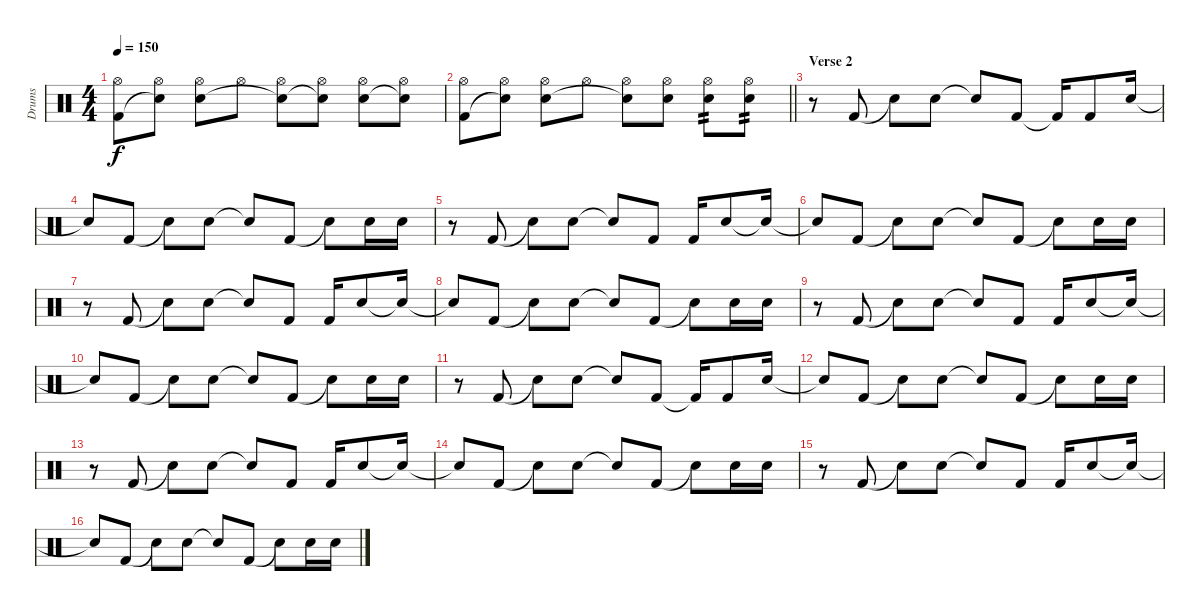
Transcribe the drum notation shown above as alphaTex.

\track ("Drums" "Drums") {instrument percussion}
\staff {score}
\articulation defaults
\ts (4 4)
\tempo 150
\clef neutral
\ks c
("Hi-Hat (open)" "Kick (hit) 2").8{dy f} ("Hi-Hat (open)" "Snare (hit)"{t}).8 ("Hi-Hat (open)" "Electric Snare (hit)").8 "Hi-Hat (open)".8 ("Hi-Hat (open)" "Snare (hit)"{t}).8 ("Hi-Hat (open)" "Electric Snare (hit)"{t}).8 ("Hi-Hat (open)" "Electric Snare (hit)").8 ("Hi-Hat (open)" "Snare (hit)"{t}).8 |
\barLineRight lightlight
("Hi-Hat (open)" "Kick (hit) 2").8 ("Hi-Hat (open)" "Snare (hit)"{t}).8 ("Hi-Hat (open)" "Electric Snare (hit)").8 "Hi-Hat (open)".8 ("Hi-Hat (open)" "Snare (hit)"{t}).8 ("Hi-Hat (open)" "Electric Snare (hit)").8 ("Hi-Hat (open)" "Electric Snare (hit)").8{tp 2} ("Hi-Hat (open)" "Electric Snare (hit)").8{tp 2} |
\section ("" "Verse 2")
r.8 "Kick (hit) 2".8 "Snare (hit)"{t}.8 "Electric Snare (hit)".8 "Snare (hit)"{t}.8 "Kick (hit) 2".8 "Kick (hit) 2"{t}.16 "Kick (hit) 2".8 "Electric Snare (hit)".16 |
"Snare (hit)"{t}.8 "Kick (hit) 2".8 "Snare (hit)"{t}.8 "Electric Snare (hit)".8 "Snare (hit)"{t}.8 "Kick (hit) 2".8 "Snare (hit)"{t}.8 "Electric Snare (hit)".16 "Electric Snare (hit)".16 |
r.8 "Kick (hit) 2".8 "Snare (hit)"{t}.8 "Electric Snare (hit)".8 "Snare (hit)"{t}.8 "Kick (hit) 2".8 "Kick (hit) 2".16 "Electric Snare (hit)".8 "Snare (hit)"{t}.16 |
"Snare (hit)"{t}.8 "Kick (hit) 2".8 "Snare (hit)"{t}.8 "Electric Snare (hit)".8 "Snare (hit)"{t}.8 "Kick (hit) 2".8 "Snare (hit)"{t}.8 "Electric Snare (hit)".16 "Electric Snare (hit)".16 |
r.8 "Kick (hit) 2".8 "Snare (hit)"{t}.8 "Electric Snare (hit)".8 "Snare (hit)"{t}.8 "Kick (hit) 2".8 "Kick (hit) 2".16 "Electric Snare (hit)".8 "Snare (hit)"{t}.16 |
"Snare (hit)"{t}.8 "Kick (hit) 2".8 "Snare (hit)"{t}.8 "Electric Snare (hit)".8 "Snare (hit)"{t}.8 "Kick (hit) 2".8 "Snare (hit)"{t}.8 "Electric Snare (hit)".16 "Electric Snare (hit)".16 |
r.8 "Kick (hit) 2".8 "Snare (hit)"{t}.8 "Electric Snare (hit)".8 "Snare (hit)"{t}.8 "Kick (hit) 2".8 "Kick (hit) 2".16 "Electric Snare (hit)".8 "Snare (hit)"{t}.16 |
"Snare (hit)"{t}.8 "Kick (hit) 2".8 "Snare (hit)"{t}.8 "Electric Snare (hit)".8 "Snare (hit)"{t}.8 "Kick (hit) 2".8 "Snare (hit)"{t}.8 "Electric Snare (hit)".16 "Electric Snare (hit)".16 |
r.8 "Kick (hit) 2".8 "Snare (hit)"{t}.8 "Electric Snare (hit)".8 "Snare (hit)"{t}.8 "Kick (hit) 2".8 "Kick (hit) 2"{t}.16 "Kick (hit) 2".8 "Electric Snare (hit)".16 |
"Snare (hit)"{t}.8 "Kick (hit) 2".8 "Snare (hit)"{t}.8 "Electric Snare (hit)".8 "Snare (hit)"{t}.8 "Kick (hit) 2".8 "Snare (hit)"{t}.8 "Electric Snare (hit)".16 "Electric Snare (hit)".16 |
r.8 "Kick (hit) 2".8 "Snare (hit)"{t}.8 "Electric Snare (hit)".8 "Snare (hit)"{t}.8 "Kick (hit) 2".8 "Kick (hit) 2".16 "Electric Snare (hit)".8 "Snare (hit)"{t}.16 |
"Snare (hit)"{t}.8 "Kick (hit) 2".8 "Snare (hit)"{t}.8 "Electric Snare (hit)".8 "Snare (hit)"{t}.8 "Kick (hit) 2".8 "Snare (hit)"{t}.8 "Electric Snare (hit)".16 "Electric Snare (hit)".16 |
r.8 "Kick (hit) 2".8 "Snare (hit)"{t}.8 "Electric Snare (hit)".8 "Snare (hit)"{t}.8 "Kick (hit) 2".8 "Kick (hit) 2".16 "Electric Snare (hit)".8 "Snare (hit)"{t}.16 |
"Snare (hit)"{t}.8 "Kick (hit) 2".8 "Snare (hit)"{t}.8 "Electric Snare (hit)".8 "Snare (hit)"{t}.8 "Kick (hit) 2".8 "Snare (hit)"{t}.8 "Electric Snare (hit)".16 "Electric Snare (hit)".16
